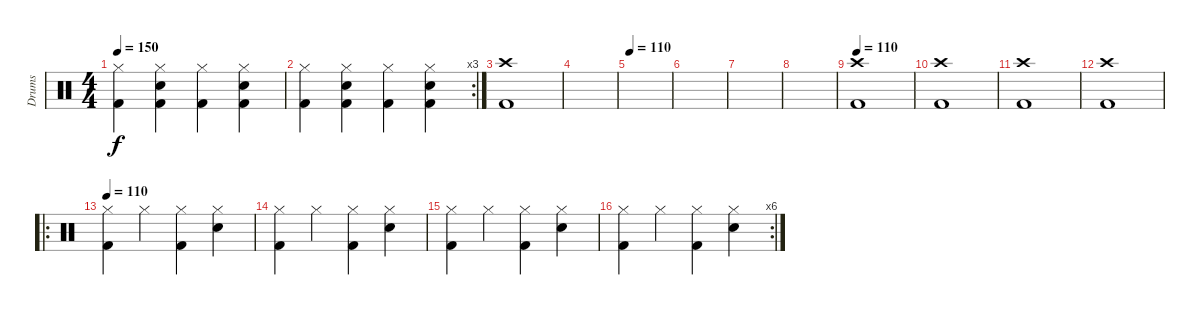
\track ("Drums" "Drums") {instrument percussion}
\staff {score}
\articulation defaults
\ts (4 4)
\tempo 150
\clef neutral
\ks c
("Hi-Hat (closed)" "Kick (hit) 2").4{dy f} ("Hi-Hat (closed)" "Electric Snare (hit)" "Kick (hit) 2").4 ("Hi-Hat (closed)" "Kick (hit) 2").4 ("Hi-Hat (closed)" "Electric Snare (hit)" "Kick (hit) 2").4 |
\rc 3
("Hi-Hat (closed)" "Kick (hit) 2").4 ("Hi-Hat (closed)" "Electric Snare (hit)" "Kick (hit) 2").4 ("Hi-Hat (closed)" "Kick (hit) 2").4 ("Hi-Hat (closed)" "Electric Snare (hit)" "Kick (hit) 2").4 |
("Crash high (hit)" "Kick (hit) 2").1 |
|
\tempo 110
|
|
|
|
\tempo 110
("Crash high (hit)" "Kick (hit) 2").1 |
("Crash high (hit)" "Kick (hit) 2").1 |
("Crash high (hit)" "Kick (hit) 2").1 |
("Kick (hit) 2" "Crash high (hit)").1 |
\ro
\tempo 110
("Hi-Hat (closed)" "Kick (hit) 2").4 "Hi-Hat (closed)".4 ("Hi-Hat (closed)" "Kick (hit) 2").4 ("Hi-Hat (closed)" "Electric Snare (hit)").4 |
("Hi-Hat (closed)" "Kick (hit) 2").4 "Hi-Hat (closed)".4 ("Hi-Hat (closed)" "Kick (hit) 2").4 ("Hi-Hat (closed)" "Electric Snare (hit)").4 |
("Hi-Hat (closed)" "Kick (hit) 2").4 "Hi-Hat (closed)".4 ("Hi-Hat (closed)" "Kick (hit) 2").4 ("Hi-Hat (closed)" "Electric Snare (hit)").4 |
\rc 6
("Hi-Hat (closed)" "Kick (hit) 2").4 "Hi-Hat (closed)".4 ("Hi-Hat (closed)" "Kick (hit) 2").4 ("Hi-Hat (closed)" "Electric Snare (hit)").4
